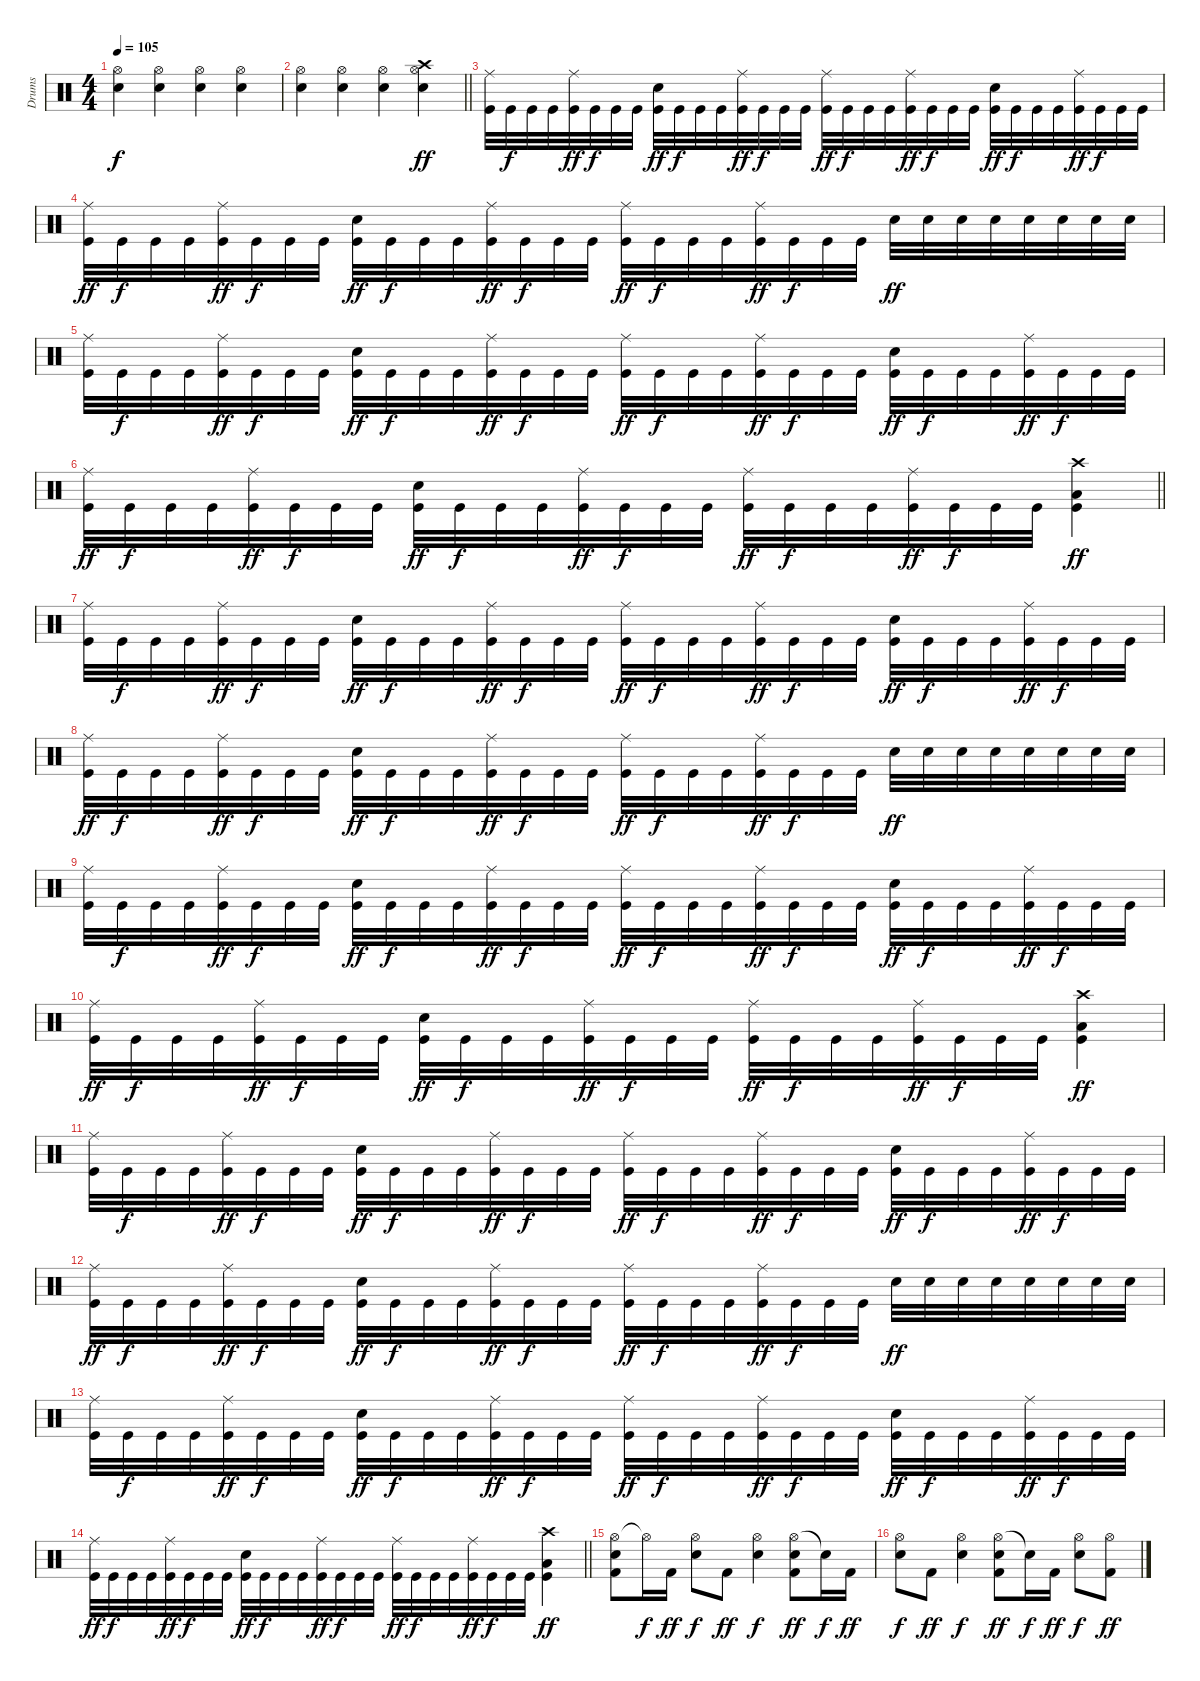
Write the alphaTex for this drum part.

\track ("Drums" "Drums") {instrument percussion}
\staff {score}
\articulation defaults
\ts (4 4)
\tempo 105
\clef neutral
\ks c
("Hi-Hat (open)" "Snare (hit) 2").4{dy f} ("Hi-Hat (open)" "Snare (hit) 2").4 ("Hi-Hat (open)" "Snare (hit) 2").4 ("Hi-Hat (open)" "Snare (hit) 2").4 |
\barLineRight lightlight
("Hi-Hat (open)" "Snare (hit) 2").4 ("Hi-Hat (open)" "Snare (hit) 2").4 ("Hi-Hat (open)" "Snare (hit) 2").4 ("Crash high (hit)" "Hi-Hat (open)" "Snare (hit) 2").4{dy ff} |
\section ("" "")
("Ride (middle)" "Kick (hit)").32 "Kick (hit)".32{dy f} "Kick (hit)".32 "Kick (hit)".32 ("Ride (middle)" "Kick (hit)").32{dy ff} "Kick (hit)".32{dy f} "Kick (hit)".32 "Kick (hit)".32 ("Snare (hit) 2" "Kick (hit)").32{dy ff} "Kick (hit)".32{dy f} "Kick (hit)".32 "Kick (hit)".32 ("Ride (middle)" "Kick (hit)").32{dy ff} "Kick (hit)".32{dy f} "Kick (hit)".32 "Kick (hit)".32 ("Ride (middle)" "Kick (hit)").32{dy ff} "Kick (hit)".32{dy f} "Kick (hit)".32 "Kick (hit)".32 ("Ride (middle)" "Kick (hit)").32{dy ff} "Kick (hit)".32{dy f} "Kick (hit)".32 "Kick (hit)".32 ("Snare (hit) 2" "Kick (hit)").32{dy ff} "Kick (hit)".32{dy f} "Kick (hit)".32 "Kick (hit)".32 ("Ride (middle)" "Kick (hit)").32{dy ff} "Kick (hit)".32{dy f} "Kick (hit)".32 "Kick (hit)".32 |
("Ride (middle)" "Kick (hit)").32{dy ff} "Kick (hit)".32{dy f} "Kick (hit)".32 "Kick (hit)".32 ("Ride (middle)" "Kick (hit)").32{dy ff} "Kick (hit)".32{dy f} "Kick (hit)".32 "Kick (hit)".32 ("Snare (hit) 2" "Kick (hit)").32{dy ff} "Kick (hit)".32{dy f} "Kick (hit)".32 "Kick (hit)".32 ("Ride (middle)" "Kick (hit)").32{dy ff} "Kick (hit)".32{dy f} "Kick (hit)".32 "Kick (hit)".32 ("Ride (middle)" "Kick (hit)").32{dy ff} "Kick (hit)".32{dy f} "Kick (hit)".32 "Kick (hit)".32 ("Ride (middle)" "Kick (hit)").32{dy ff} "Kick (hit)".32{dy f} "Kick (hit)".32 "Kick (hit)".32 "Snare (hit) 2".32{dy ff} "Snare (hit) 2".32 "Snare (hit) 2".32 "Snare (hit) 2".32 "Snare (hit) 2".32 "Snare (hit) 2".32 "Snare (hit) 2".32 "Snare (hit) 2".32 |
("Ride (middle)" "Kick (hit)").32 "Kick (hit)".32{dy f} "Kick (hit)".32 "Kick (hit)".32 ("Ride (middle)" "Kick (hit)").32{dy ff} "Kick (hit)".32{dy f} "Kick (hit)".32 "Kick (hit)".32 ("Snare (hit) 2" "Kick (hit)").32{dy ff} "Kick (hit)".32{dy f} "Kick (hit)".32 "Kick (hit)".32 ("Ride (middle)" "Kick (hit)").32{dy ff} "Kick (hit)".32{dy f} "Kick (hit)".32 "Kick (hit)".32 ("Ride (middle)" "Kick (hit)").32{dy ff} "Kick (hit)".32{dy f} "Kick (hit)".32 "Kick (hit)".32 ("Ride (middle)" "Kick (hit)").32{dy ff} "Kick (hit)".32{dy f} "Kick (hit)".32 "Kick (hit)".32 ("Snare (hit) 2" "Kick (hit)").32{dy ff} "Kick (hit)".32{dy f} "Kick (hit)".32 "Kick (hit)".32 ("Ride (middle)" "Kick (hit)").32{dy ff} "Kick (hit)".32{dy f} "Kick (hit)".32 "Kick (hit)".32 |
\barLineRight lightlight
("Ride (middle)" "Kick (hit)").32{dy ff} "Kick (hit)".32{dy f} "Kick (hit)".32 "Kick (hit)".32 ("Ride (middle)" "Kick (hit)").32{dy ff} "Kick (hit)".32{dy f} "Kick (hit)".32 "Kick (hit)".32 ("Snare (hit) 2" "Kick (hit)").32{dy ff} "Kick (hit)".32{dy f} "Kick (hit)".32 "Kick (hit)".32 ("Ride (middle)" "Kick (hit)").32{dy ff} "Kick (hit)".32{dy f} "Kick (hit)".32 "Kick (hit)".32 ("Ride (middle)" "Kick (hit)").32{dy ff} "Kick (hit)".32{dy f} "Kick (hit)".32 "Kick (hit)".32 ("Ride (middle)" "Kick (hit)").32{dy ff} "Kick (hit)".32{dy f} "Kick (hit)".32 "Kick (hit)".32 ("Crash high (hit)" "Low Floor Tom (hit)" "Kick (hit)").4{dy ff} |
\section ("" "")
("Ride (middle)" "Kick (hit)").32 "Kick (hit)".32{dy f} "Kick (hit)".32 "Kick (hit)".32 ("Ride (middle)" "Kick (hit)").32{dy ff} "Kick (hit)".32{dy f} "Kick (hit)".32 "Kick (hit)".32 ("Snare (hit) 2" "Kick (hit)").32{dy ff} "Kick (hit)".32{dy f} "Kick (hit)".32 "Kick (hit)".32 ("Ride (middle)" "Kick (hit)").32{dy ff} "Kick (hit)".32{dy f} "Kick (hit)".32 "Kick (hit)".32 ("Ride (middle)" "Kick (hit)").32{dy ff} "Kick (hit)".32{dy f} "Kick (hit)".32 "Kick (hit)".32 ("Ride (middle)" "Kick (hit)").32{dy ff} "Kick (hit)".32{dy f} "Kick (hit)".32 "Kick (hit)".32 ("Snare (hit) 2" "Kick (hit)").32{dy ff} "Kick (hit)".32{dy f} "Kick (hit)".32 "Kick (hit)".32 ("Ride (middle)" "Kick (hit)").32{dy ff} "Kick (hit)".32{dy f} "Kick (hit)".32 "Kick (hit)".32 |
("Ride (middle)" "Kick (hit)").32{dy ff} "Kick (hit)".32{dy f} "Kick (hit)".32 "Kick (hit)".32 ("Ride (middle)" "Kick (hit)").32{dy ff} "Kick (hit)".32{dy f} "Kick (hit)".32 "Kick (hit)".32 ("Snare (hit) 2" "Kick (hit)").32{dy ff} "Kick (hit)".32{dy f} "Kick (hit)".32 "Kick (hit)".32 ("Ride (middle)" "Kick (hit)").32{dy ff} "Kick (hit)".32{dy f} "Kick (hit)".32 "Kick (hit)".32 ("Ride (middle)" "Kick (hit)").32{dy ff} "Kick (hit)".32{dy f} "Kick (hit)".32 "Kick (hit)".32 ("Ride (middle)" "Kick (hit)").32{dy ff} "Kick (hit)".32{dy f} "Kick (hit)".32 "Kick (hit)".32 "Snare (hit) 2".32{dy ff} "Snare (hit) 2".32 "Snare (hit) 2".32 "Snare (hit) 2".32 "Snare (hit) 2".32 "Snare (hit) 2".32 "Snare (hit) 2".32 "Snare (hit) 2".32 |
("Ride (middle)" "Kick (hit)").32 "Kick (hit)".32{dy f} "Kick (hit)".32 "Kick (hit)".32 ("Ride (middle)" "Kick (hit)").32{dy ff} "Kick (hit)".32{dy f} "Kick (hit)".32 "Kick (hit)".32 ("Snare (hit) 2" "Kick (hit)").32{dy ff} "Kick (hit)".32{dy f} "Kick (hit)".32 "Kick (hit)".32 ("Ride (middle)" "Kick (hit)").32{dy ff} "Kick (hit)".32{dy f} "Kick (hit)".32 "Kick (hit)".32 ("Ride (middle)" "Kick (hit)").32{dy ff} "Kick (hit)".32{dy f} "Kick (hit)".32 "Kick (hit)".32 ("Ride (middle)" "Kick (hit)").32{dy ff} "Kick (hit)".32{dy f} "Kick (hit)".32 "Kick (hit)".32 ("Snare (hit) 2" "Kick (hit)").32{dy ff} "Kick (hit)".32{dy f} "Kick (hit)".32 "Kick (hit)".32 ("Ride (middle)" "Kick (hit)").32{dy ff} "Kick (hit)".32{dy f} "Kick (hit)".32 "Kick (hit)".32 |
("Ride (middle)" "Kick (hit)").32{dy ff} "Kick (hit)".32{dy f} "Kick (hit)".32 "Kick (hit)".32 ("Ride (middle)" "Kick (hit)").32{dy ff} "Kick (hit)".32{dy f} "Kick (hit)".32 "Kick (hit)".32 ("Snare (hit) 2" "Kick (hit)").32{dy ff} "Kick (hit)".32{dy f} "Kick (hit)".32 "Kick (hit)".32 ("Ride (middle)" "Kick (hit)").32{dy ff} "Kick (hit)".32{dy f} "Kick (hit)".32 "Kick (hit)".32 ("Ride (middle)" "Kick (hit)").32{dy ff} "Kick (hit)".32{dy f} "Kick (hit)".32 "Kick (hit)".32 ("Ride (middle)" "Kick (hit)").32{dy ff} "Kick (hit)".32{dy f} "Kick (hit)".32 "Kick (hit)".32 ("Crash high (hit)" "Low Floor Tom (hit)" "Kick (hit)").4{dy ff} |
("Ride (middle)" "Kick (hit)").32 "Kick (hit)".32{dy f} "Kick (hit)".32 "Kick (hit)".32 ("Ride (middle)" "Kick (hit)").32{dy ff} "Kick (hit)".32{dy f} "Kick (hit)".32 "Kick (hit)".32 ("Snare (hit) 2" "Kick (hit)").32{dy ff} "Kick (hit)".32{dy f} "Kick (hit)".32 "Kick (hit)".32 ("Ride (middle)" "Kick (hit)").32{dy ff} "Kick (hit)".32{dy f} "Kick (hit)".32 "Kick (hit)".32 ("Ride (middle)" "Kick (hit)").32{dy ff} "Kick (hit)".32{dy f} "Kick (hit)".32 "Kick (hit)".32 ("Ride (middle)" "Kick (hit)").32{dy ff} "Kick (hit)".32{dy f} "Kick (hit)".32 "Kick (hit)".32 ("Snare (hit) 2" "Kick (hit)").32{dy ff} "Kick (hit)".32{dy f} "Kick (hit)".32 "Kick (hit)".32 ("Ride (middle)" "Kick (hit)").32{dy ff} "Kick (hit)".32{dy f} "Kick (hit)".32 "Kick (hit)".32 |
("Ride (middle)" "Kick (hit)").32{dy ff} "Kick (hit)".32{dy f} "Kick (hit)".32 "Kick (hit)".32 ("Ride (middle)" "Kick (hit)").32{dy ff} "Kick (hit)".32{dy f} "Kick (hit)".32 "Kick (hit)".32 ("Snare (hit) 2" "Kick (hit)").32{dy ff} "Kick (hit)".32{dy f} "Kick (hit)".32 "Kick (hit)".32 ("Ride (middle)" "Kick (hit)").32{dy ff} "Kick (hit)".32{dy f} "Kick (hit)".32 "Kick (hit)".32 ("Ride (middle)" "Kick (hit)").32{dy ff} "Kick (hit)".32{dy f} "Kick (hit)".32 "Kick (hit)".32 ("Ride (middle)" "Kick (hit)").32{dy ff} "Kick (hit)".32{dy f} "Kick (hit)".32 "Kick (hit)".32 "Snare (hit) 2".32{dy ff} "Snare (hit) 2".32 "Snare (hit) 2".32 "Snare (hit) 2".32 "Snare (hit) 2".32 "Snare (hit) 2".32 "Snare (hit) 2".32 "Snare (hit) 2".32 |
("Ride (middle)" "Kick (hit)").32 "Kick (hit)".32{dy f} "Kick (hit)".32 "Kick (hit)".32 ("Ride (middle)" "Kick (hit)").32{dy ff} "Kick (hit)".32{dy f} "Kick (hit)".32 "Kick (hit)".32 ("Snare (hit) 2" "Kick (hit)").32{dy ff} "Kick (hit)".32{dy f} "Kick (hit)".32 "Kick (hit)".32 ("Ride (middle)" "Kick (hit)").32{dy ff} "Kick (hit)".32{dy f} "Kick (hit)".32 "Kick (hit)".32 ("Ride (middle)" "Kick (hit)").32{dy ff} "Kick (hit)".32{dy f} "Kick (hit)".32 "Kick (hit)".32 ("Ride (middle)" "Kick (hit)").32{dy ff} "Kick (hit)".32{dy f} "Kick (hit)".32 "Kick (hit)".32 ("Snare (hit) 2" "Kick (hit)").32{dy ff} "Kick (hit)".32{dy f} "Kick (hit)".32 "Kick (hit)".32 ("Ride (middle)" "Kick (hit)").32{dy ff} "Kick (hit)".32{dy f} "Kick (hit)".32 "Kick (hit)".32 |
\barLineRight lightlight
("Ride (middle)" "Kick (hit)").32{dy ff} "Kick (hit)".32{dy f} "Kick (hit)".32 "Kick (hit)".32 ("Ride (middle)" "Kick (hit)").32{dy ff} "Kick (hit)".32{dy f} "Kick (hit)".32 "Kick (hit)".32 ("Snare (hit) 2" "Kick (hit)").32{dy ff} "Kick (hit)".32{dy f} "Kick (hit)".32 "Kick (hit)".32 ("Ride (middle)" "Kick (hit)").32{dy ff} "Kick (hit)".32{dy f} "Kick (hit)".32 "Kick (hit)".32 ("Ride (middle)" "Kick (hit)").32{dy ff} "Kick (hit)".32{dy f} "Kick (hit)".32 "Kick (hit)".32 ("Ride (middle)" "Kick (hit)").32{dy ff} "Kick (hit)".32{dy f} "Kick (hit)".32 "Kick (hit)".32 ("Crash high (hit)" "Low Floor Tom (hit)" "Kick (hit)").4{dy ff} |
\section ("" "")
("Hi-Hat (open)" "Snare (hit) 2" "Kick (hit) 2").8 "Hi-Hat (open)"{t}.16{dy f} "Kick (hit) 2".16{dy ff} ("Hi-Hat (open)" "Snare (hit) 2").8{dy f} "Kick (hit) 2".8{dy ff} ("Hi-Hat (open)" "Snare (hit) 2").4{dy f} ("Hi-Hat (open)" "Snare (hit) 2" "Kick (hit) 2").8{dy ff} "Snare (hit)"{t}.16{dy f} "Kick (hit) 2".16{dy ff} |
("Hi-Hat (open)" "Snare (hit) 2").8{dy f} "Kick (hit) 2".8{dy ff} ("Hi-Hat (open)" "Snare (hit) 2").4{dy f} ("Hi-Hat (open)" "Snare (hit) 2" "Kick (hit) 2").8{dy ff} "Snare (hit)"{t}.16{dy f} "Kick (hit) 2".16{dy ff} ("Hi-Hat (open)" "Snare (hit) 2").8{dy f} ("Hi-Hat (open)" "Kick (hit) 2").8{dy ff}
